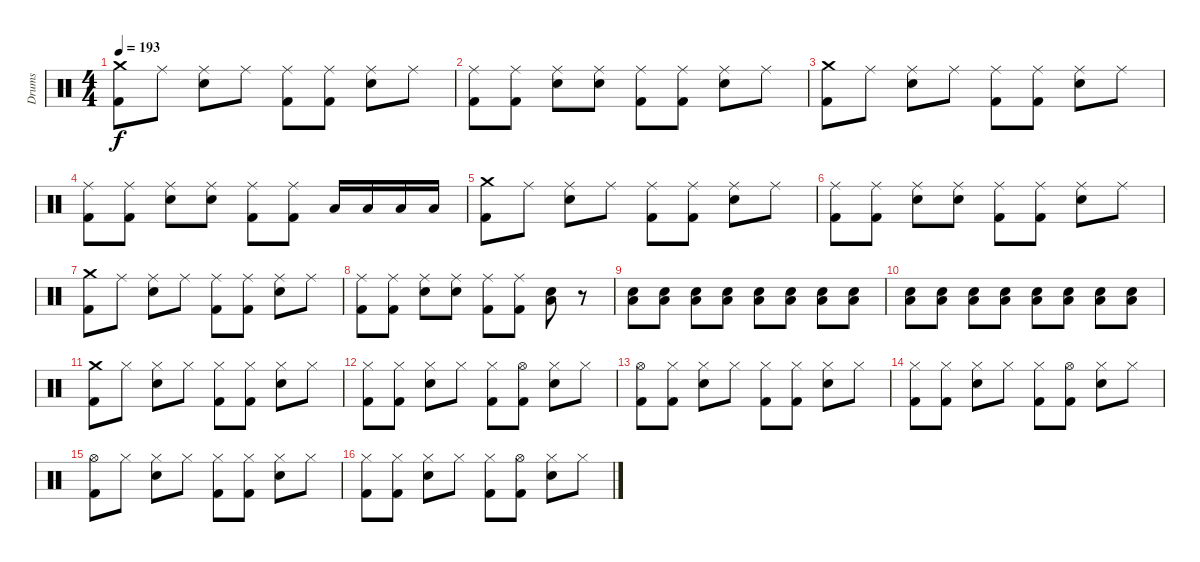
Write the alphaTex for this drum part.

\track ("Drums" "Drums") {instrument percussion}
\staff {score}
\articulation defaults
\ts (4 4)
\tempo 193
\clef neutral
\ks c
("Crash medium (hit)" "Kick (hit) 2").8{dy f} "Ride (middle)".8 ("Ride (middle)" "Snare (hit) 2").8 "Ride (middle)".8 ("Ride (middle)" "Kick (hit) 2").8 ("Ride (middle)" "Kick (hit) 2").8 ("Ride (middle)" "Snare (hit) 2").8 "Ride (middle)".8 |
("Ride (middle)" "Kick (hit) 2").8 ("Ride (middle)" "Kick (hit) 2").8 ("Ride (middle)" "Snare (hit) 2").8 ("Ride (middle)" "Snare (hit) 2").8 ("Ride (middle)" "Kick (hit) 2").8 ("Ride (middle)" "Kick (hit) 2").8 ("Ride (middle)" "Snare (hit) 2").8 "Ride (middle)".8 |
("Crash medium (hit)" "Kick (hit) 2").8 "Ride (middle)".8 ("Ride (middle)" "Snare (hit) 2").8 "Ride (middle)".8 ("Ride (middle)" "Kick (hit) 2").8 ("Ride (middle)" "Kick (hit) 2").8 ("Ride (middle)" "Snare (hit) 2").8 "Ride (middle)".8 |
("Ride (middle)" "Kick (hit) 2").8 ("Ride (middle)" "Kick (hit) 2").8 ("Ride (middle)" "Snare (hit) 2").8 ("Ride (middle)" "Snare (hit) 2").8 ("Ride (middle)" "Kick (hit) 2").8 ("Ride (middle)" "Kick (hit) 2").8 "Low Floor Tom (hit)".16 "Low Floor Tom (hit)".16 "Low Floor Tom (hit)".16 "Low Floor Tom (hit)".16 |
("Crash medium (hit)" "Kick (hit) 2").8 "Ride (middle)".8 ("Ride (middle)" "Snare (hit) 2").8 "Ride (middle)".8 ("Ride (middle)" "Kick (hit) 2").8 ("Ride (middle)" "Kick (hit) 2").8 ("Ride (middle)" "Snare (hit) 2").8 "Ride (middle)".8 |
("Ride (middle)" "Kick (hit) 2").8 ("Ride (middle)" "Kick (hit) 2").8 ("Ride (middle)" "Snare (hit) 2").8 ("Ride (middle)" "Snare (hit) 2").8 ("Ride (middle)" "Kick (hit) 2").8 ("Ride (middle)" "Kick (hit) 2").8 ("Ride (middle)" "Snare (hit) 2").8 "Ride (middle)".8 |
("Crash medium (hit)" "Kick (hit) 2").8 "Ride (middle)".8 ("Ride (middle)" "Snare (hit) 2").8 "Ride (middle)".8 ("Ride (middle)" "Kick (hit) 2").8 ("Ride (middle)" "Kick (hit) 2").8 ("Ride (middle)" "Snare (hit) 2").8 "Ride (middle)".8 |
("Ride (middle)" "Kick (hit) 2").8 ("Ride (middle)" "Kick (hit) 2").8 ("Ride (middle)" "Snare (hit) 2").8 ("Ride (middle)" "Snare (hit) 2").8 ("Ride (middle)" "Kick (hit) 2").8 ("Ride (middle)" "Kick (hit) 2").8 ("Snare (hit) 2" "Low Tom (hit)").8 r.8 |
("Snare (hit) 2" "Low Floor Tom (hit)").8 ("Snare (hit) 2" "Low Floor Tom (hit)").8 ("Snare (hit) 2" "Low Floor Tom (hit)").8 ("Snare (hit) 2" "Low Floor Tom (hit)").8 ("Snare (hit) 2" "Low Floor Tom (hit)").8 ("Snare (hit) 2" "Low Floor Tom (hit)").8 ("Snare (hit) 2" "Low Floor Tom (hit)").8 ("Snare (hit) 2" "Low Floor Tom (hit)").8 |
("Snare (hit) 2" "Low Floor Tom (hit)").8 ("Snare (hit) 2" "Low Floor Tom (hit)").8 ("Snare (hit) 2" "Low Floor Tom (hit)").8 ("Snare (hit) 2" "Low Floor Tom (hit)").8 ("Snare (hit) 2" "Low Floor Tom (hit)").8 ("Snare (hit) 2" "Low Floor Tom (hit)").8 ("Snare (hit) 2" "Low Floor Tom (hit)").8 ("Snare (hit) 2" "Low Floor Tom (hit)").8 |
("Crash medium (hit)" "Kick (hit) 2").8 "Hi-Hat (closed)".8 ("Hi-Hat (closed)" "Snare (hit) 2").8 "Hi-Hat (closed)".8 ("Hi-Hat (closed)" "Kick (hit) 2").8 ("Hi-Hat (closed)" "Kick (hit) 2").8 ("Hi-Hat (closed)" "Snare (hit) 2").8 "Hi-Hat (closed)".8 |
("Hi-Hat (closed)" "Kick (hit) 2").8 ("Hi-Hat (closed)" "Kick (hit) 2").8 ("Hi-Hat (closed)" "Snare (hit) 2").8 "Hi-Hat (closed)".8 ("Hi-Hat (closed)" "Kick (hit) 2").8 ("Hi-Hat (open)" "Kick (hit) 2").8 ("Hi-Hat (closed)" "Snare (hit) 2").8 "Hi-Hat (closed)".8 |
("Hi-Hat (open)" "Kick (hit) 2").8 ("Hi-Hat (closed)" "Kick (hit) 2").8 ("Hi-Hat (closed)" "Snare (hit) 2").8 "Hi-Hat (closed)".8 ("Hi-Hat (closed)" "Kick (hit) 2").8 ("Hi-Hat (closed)" "Kick (hit) 2").8 ("Hi-Hat (closed)" "Snare (hit) 2").8 "Hi-Hat (closed)".8 |
("Hi-Hat (closed)" "Kick (hit) 2").8 ("Hi-Hat (closed)" "Kick (hit) 2").8 ("Hi-Hat (closed)" "Snare (hit) 2").8 "Hi-Hat (closed)".8 ("Hi-Hat (closed)" "Kick (hit) 2").8 ("Hi-Hat (open)" "Kick (hit) 2").8 ("Hi-Hat (closed)" "Snare (hit) 2").8 "Hi-Hat (closed)".8 |
("Hi-Hat (open)" "Kick (hit) 2").8 "Hi-Hat (closed)".8 ("Hi-Hat (closed)" "Snare (hit) 2").8 "Hi-Hat (closed)".8 ("Hi-Hat (closed)" "Kick (hit) 2").8 ("Hi-Hat (closed)" "Kick (hit) 2").8 ("Hi-Hat (closed)" "Snare (hit) 2").8 "Hi-Hat (closed)".8 |
("Hi-Hat (closed)" "Kick (hit) 2").8 ("Hi-Hat (closed)" "Kick (hit) 2").8 ("Hi-Hat (closed)" "Snare (hit) 2").8 "Hi-Hat (closed)".8 ("Hi-Hat (closed)" "Kick (hit) 2").8 ("Hi-Hat (open)" "Kick (hit) 2").8 ("Hi-Hat (closed)" "Snare (hit) 2").8 "Hi-Hat (closed)".8
